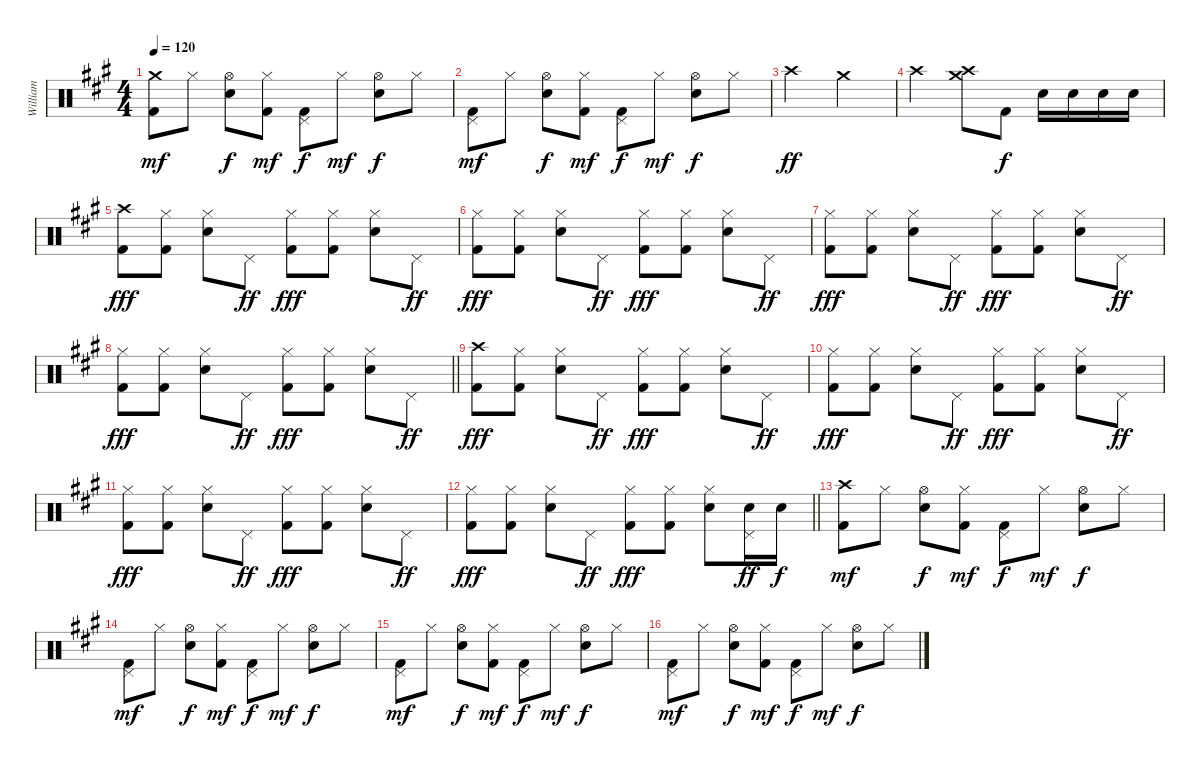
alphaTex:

\track ("William" "William") {instrument percussion}
\staff {score}
\articulation defaults
\ts (4 4)
\tempo 120
\clef neutral
\ks a
("Crash medium (hit)" "Kick (hit) 2").8{dy mf} "Hi-Hat (closed)".8 ("Hi-Hat (open)" "Snare (hit) 2").8{dy f} ("Hi-Hat (closed)" "Kick (hit) 2").8{dy mf} ("Pedal Hi-Hat (hit)" "Kick (hit) 2").8{dy f} "Hi-Hat (closed)".8{dy mf} ("Hi-Hat (open)" "Snare (hit) 2").8{dy f} "Hi-Hat (closed)".8 |
("Pedal Hi-Hat (hit)" "Kick (hit) 2").8{dy mf} "Hi-Hat (closed)".8 ("Hi-Hat (open)" "Snare (hit) 2").8{dy f} ("Hi-Hat (closed)" "Kick (hit) 2").8{dy mf} ("Pedal Hi-Hat (hit)" "Kick (hit) 2").8{dy f} "Hi-Hat (closed)".8{dy mf} ("Hi-Hat (open)" "Snare (hit) 2").8{dy f} "Hi-Hat (closed)".8 |
"Crash high (hit)".2{dy ff} "Crash medium (hit)".2 |
"Crash high (hit)".2 ("Crash high (hit)" "Crash medium (hit)").8 "Kick (hit) 2".8{dy f} "Snare (hit) 2".16 "Snare (hit) 2".16 "Snare (hit) 2".16 "Snare (hit) 2".16 |
("Crash high (hit)" "Kick (hit) 2").8{dy fff} ("Hi-Hat (closed)" "Kick (hit) 2").8 ("Hi-Hat (closed)" "Snare (hit) 2").8 "Pedal Hi-Hat (hit)".8{dy ff} ("Hi-Hat (closed)" "Kick (hit) 2").8{dy fff} ("Hi-Hat (closed)" "Kick (hit) 2").8 ("Hi-Hat (closed)" "Snare (hit) 2").8 "Pedal Hi-Hat (hit)".8{dy ff} |
("Hi-Hat (closed)" "Kick (hit) 2").8{dy fff} ("Hi-Hat (closed)" "Kick (hit) 2").8 ("Hi-Hat (closed)" "Snare (hit) 2").8 "Pedal Hi-Hat (hit)".8{dy ff} ("Hi-Hat (closed)" "Kick (hit) 2").8{dy fff} ("Hi-Hat (closed)" "Kick (hit) 2").8 ("Hi-Hat (closed)" "Snare (hit) 2").8 "Pedal Hi-Hat (hit)".8{dy ff} |
("Hi-Hat (closed)" "Kick (hit) 2").8{dy fff} ("Hi-Hat (closed)" "Kick (hit) 2").8 ("Hi-Hat (closed)" "Snare (hit) 2").8 "Pedal Hi-Hat (hit)".8{dy ff} ("Hi-Hat (closed)" "Kick (hit) 2").8{dy fff} ("Hi-Hat (closed)" "Kick (hit) 2").8 ("Hi-Hat (closed)" "Snare (hit) 2").8 "Pedal Hi-Hat (hit)".8{dy ff} |
\barLineRight lightlight
("Hi-Hat (closed)" "Kick (hit) 2").8{dy fff} ("Hi-Hat (closed)" "Kick (hit) 2").8 ("Hi-Hat (closed)" "Snare (hit) 2").8 "Pedal Hi-Hat (hit)".8{dy ff} ("Hi-Hat (closed)" "Kick (hit) 2").8{dy fff} ("Hi-Hat (closed)" "Kick (hit) 2").8 ("Hi-Hat (closed)" "Snare (hit) 2").8 "Pedal Hi-Hat (hit)".8{dy ff} |
("Crash high (hit)" "Kick (hit) 2").8{dy fff} ("Hi-Hat (closed)" "Kick (hit) 2").8 ("Hi-Hat (closed)" "Snare (hit) 2").8 "Pedal Hi-Hat (hit)".8{dy ff} ("Hi-Hat (closed)" "Kick (hit) 2").8{dy fff} ("Hi-Hat (closed)" "Kick (hit) 2").8 ("Hi-Hat (closed)" "Snare (hit) 2").8 "Pedal Hi-Hat (hit)".8{dy ff} |
("Hi-Hat (closed)" "Kick (hit) 2").8{dy fff} ("Hi-Hat (closed)" "Kick (hit) 2").8 ("Hi-Hat (closed)" "Snare (hit) 2").8 "Pedal Hi-Hat (hit)".8{dy ff} ("Hi-Hat (closed)" "Kick (hit) 2").8{dy fff} ("Hi-Hat (closed)" "Kick (hit) 2").8 ("Hi-Hat (closed)" "Snare (hit) 2").8 "Pedal Hi-Hat (hit)".8{dy ff} |
("Hi-Hat (closed)" "Kick (hit) 2").8{dy fff} ("Hi-Hat (closed)" "Kick (hit) 2").8 ("Hi-Hat (closed)" "Snare (hit) 2").8 "Pedal Hi-Hat (hit)".8{dy ff} ("Hi-Hat (closed)" "Kick (hit) 2").8{dy fff} ("Hi-Hat (closed)" "Kick (hit) 2").8 ("Hi-Hat (closed)" "Snare (hit) 2").8 "Pedal Hi-Hat (hit)".8{dy ff} |
\barLineRight lightlight
("Hi-Hat (closed)" "Kick (hit) 2").8{dy fff} ("Hi-Hat (closed)" "Kick (hit) 2").8 ("Hi-Hat (closed)" "Snare (hit) 2").8 "Pedal Hi-Hat (hit)".8{dy ff} ("Hi-Hat (closed)" "Kick (hit) 2").8{dy fff} ("Hi-Hat (closed)" "Kick (hit) 2").8 ("Hi-Hat (closed)" "Snare (hit) 2").8 ("Pedal Hi-Hat (hit)" "Snare (hit) 2").16{dy ff} "Snare (hit) 2".16{dy f} |
("Crash high (hit)" "Kick (hit) 2").8{dy mf} "Hi-Hat (closed)".8 ("Hi-Hat (open)" "Snare (hit) 2").8{dy f} ("Hi-Hat (closed)" "Kick (hit) 2").8{dy mf} ("Pedal Hi-Hat (hit)" "Kick (hit) 2").8{dy f} "Hi-Hat (closed)".8{dy mf} ("Hi-Hat (open)" "Snare (hit) 2").8{dy f} "Hi-Hat (closed)".8 |
("Pedal Hi-Hat (hit)" "Kick (hit) 2").8{dy mf} "Hi-Hat (closed)".8 ("Hi-Hat (open)" "Snare (hit) 2").8{dy f} ("Hi-Hat (closed)" "Kick (hit) 2").8{dy mf} ("Pedal Hi-Hat (hit)" "Kick (hit) 2").8{dy f} "Hi-Hat (closed)".8{dy mf} ("Hi-Hat (open)" "Snare (hit) 2").8{dy f} "Hi-Hat (closed)".8 |
("Pedal Hi-Hat (hit)" "Kick (hit) 2").8{dy mf} "Hi-Hat (closed)".8 ("Hi-Hat (open)" "Snare (hit) 2").8{dy f} ("Hi-Hat (closed)" "Kick (hit) 2").8{dy mf} ("Pedal Hi-Hat (hit)" "Kick (hit) 2").8{dy f} "Hi-Hat (closed)".8{dy mf} ("Hi-Hat (open)" "Snare (hit) 2").8{dy f} "Hi-Hat (closed)".8 |
("Pedal Hi-Hat (hit)" "Kick (hit) 2").8{dy mf} "Hi-Hat (closed)".8 ("Hi-Hat (open)" "Snare (hit) 2").8{dy f} ("Hi-Hat (closed)" "Kick (hit) 2").8{dy mf} ("Pedal Hi-Hat (hit)" "Kick (hit) 2").8{dy f} "Hi-Hat (closed)".8{dy mf} ("Hi-Hat (open)" "Snare (hit) 2").8{dy f} "Hi-Hat (closed)".8
